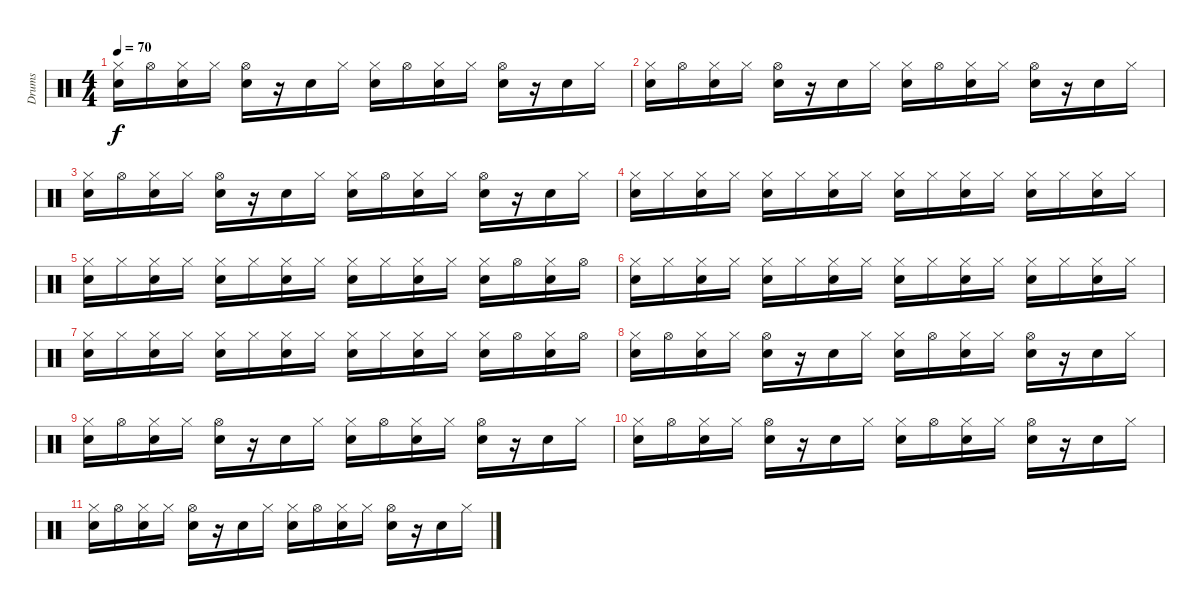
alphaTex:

\track ("Drums" "Drums") {instrument percussion}
\staff {score}
\articulation defaults
\ts (4 4)
\tempo 70
\clef neutral
\ks c
("Hi-Hat (closed)" "Electric Snare (hit)").16{dy f} "Hi-Hat (open)".16 ("Hi-Hat (closed)" "Electric Snare (hit)").16 "Hi-Hat (closed)".16 ("Hi-Hat (open)" "Electric Snare (hit)").16 r.16 "Electric Snare (hit)".16 "Hi-Hat (closed)".16 ("Hi-Hat (closed)" "Electric Snare (hit)").16 "Hi-Hat (open)".16 ("Hi-Hat (closed)" "Electric Snare (hit)").16 "Hi-Hat (closed)".16 ("Hi-Hat (open)" "Electric Snare (hit)").16 r.16 "Electric Snare (hit)".16 "Hi-Hat (closed)".16 |
("Hi-Hat (closed)" "Electric Snare (hit)").16 "Hi-Hat (open)".16 ("Hi-Hat (closed)" "Electric Snare (hit)").16 "Hi-Hat (closed)".16 ("Hi-Hat (open)" "Electric Snare (hit)").16 r.16 "Electric Snare (hit)".16 "Hi-Hat (closed)".16 ("Hi-Hat (closed)" "Electric Snare (hit)").16 "Hi-Hat (open)".16 ("Hi-Hat (closed)" "Electric Snare (hit)").16 "Hi-Hat (closed)".16 ("Hi-Hat (open)" "Electric Snare (hit)").16 r.16 "Electric Snare (hit)".16 "Hi-Hat (closed)".16 |
("Hi-Hat (closed)" "Electric Snare (hit)").16 "Hi-Hat (open)".16 ("Hi-Hat (closed)" "Electric Snare (hit)").16 "Hi-Hat (closed)".16 ("Hi-Hat (open)" "Electric Snare (hit)").16 r.16 "Electric Snare (hit)".16 "Hi-Hat (closed)".16 ("Hi-Hat (closed)" "Electric Snare (hit)").16 "Hi-Hat (open)".16 ("Hi-Hat (closed)" "Electric Snare (hit)").16 "Hi-Hat (closed)".16 ("Hi-Hat (open)" "Electric Snare (hit)").16 r.16 "Electric Snare (hit)".16 "Hi-Hat (closed)".16 |
("Hi-Hat (closed)" "Electric Snare (hit)").16 "Hi-Hat (closed)".16 ("Hi-Hat (closed)" "Electric Snare (hit)").16 "Hi-Hat (closed)".16 ("Hi-Hat (closed)" "Electric Snare (hit)").16 "Hi-Hat (closed)".16 ("Hi-Hat (closed)" "Electric Snare (hit)").16 "Hi-Hat (closed)".16 ("Hi-Hat (closed)" "Electric Snare (hit)").16 "Hi-Hat (closed)".16 ("Hi-Hat (closed)" "Electric Snare (hit)").16 "Hi-Hat (closed)".16 ("Hi-Hat (closed)" "Electric Snare (hit)").16 "Hi-Hat (closed)".16 ("Hi-Hat (closed)" "Electric Snare (hit)").16 "Hi-Hat (closed)".16 |
("Hi-Hat (closed)" "Electric Snare (hit)").16 "Hi-Hat (closed)".16 ("Hi-Hat (closed)" "Electric Snare (hit)").16 "Hi-Hat (closed)".16 ("Hi-Hat (closed)" "Electric Snare (hit)").16 "Hi-Hat (closed)".16 ("Hi-Hat (closed)" "Electric Snare (hit)").16 "Hi-Hat (closed)".16 ("Hi-Hat (closed)" "Electric Snare (hit)").16 "Hi-Hat (closed)".16 ("Hi-Hat (closed)" "Electric Snare (hit)").16 "Hi-Hat (closed)".16 ("Hi-Hat (closed)" "Electric Snare (hit)").16 "Hi-Hat (open)".16 ("Hi-Hat (closed)" "Electric Snare (hit)").16 "Hi-Hat (open)".16 |
("Hi-Hat (closed)" "Electric Snare (hit)").16 "Hi-Hat (closed)".16 ("Hi-Hat (closed)" "Electric Snare (hit)").16 "Hi-Hat (closed)".16 ("Hi-Hat (closed)" "Electric Snare (hit)").16 "Hi-Hat (closed)".16 ("Hi-Hat (closed)" "Electric Snare (hit)").16 "Hi-Hat (closed)".16 ("Hi-Hat (closed)" "Electric Snare (hit)").16 "Hi-Hat (closed)".16 ("Hi-Hat (closed)" "Electric Snare (hit)").16 "Hi-Hat (closed)".16 ("Hi-Hat (closed)" "Electric Snare (hit)").16 "Hi-Hat (closed)".16 ("Hi-Hat (closed)" "Electric Snare (hit)").16 "Hi-Hat (closed)".16 |
("Hi-Hat (closed)" "Electric Snare (hit)").16 "Hi-Hat (closed)".16 ("Hi-Hat (closed)" "Electric Snare (hit)").16 "Hi-Hat (closed)".16 ("Hi-Hat (closed)" "Electric Snare (hit)").16 "Hi-Hat (closed)".16 ("Hi-Hat (closed)" "Electric Snare (hit)").16 "Hi-Hat (closed)".16 ("Hi-Hat (closed)" "Electric Snare (hit)").16 "Hi-Hat (closed)".16 ("Hi-Hat (closed)" "Electric Snare (hit)").16 "Hi-Hat (closed)".16 ("Hi-Hat (closed)" "Electric Snare (hit)").16 "Hi-Hat (open)".16 ("Hi-Hat (closed)" "Electric Snare (hit)").16 "Hi-Hat (open)".16 |
("Hi-Hat (closed)" "Electric Snare (hit)").16 "Hi-Hat (open)".16 ("Hi-Hat (closed)" "Electric Snare (hit)").16 "Hi-Hat (closed)".16 ("Hi-Hat (open)" "Electric Snare (hit)").16 r.16 "Electric Snare (hit)".16 "Hi-Hat (closed)".16 ("Hi-Hat (closed)" "Electric Snare (hit)").16 "Hi-Hat (open)".16 ("Hi-Hat (closed)" "Electric Snare (hit)").16 "Hi-Hat (closed)".16 ("Hi-Hat (open)" "Electric Snare (hit)").16 r.16 "Electric Snare (hit)".16 "Hi-Hat (closed)".16 |
("Hi-Hat (closed)" "Electric Snare (hit)").16 "Hi-Hat (open)".16 ("Hi-Hat (closed)" "Electric Snare (hit)").16 "Hi-Hat (closed)".16 ("Hi-Hat (open)" "Electric Snare (hit)").16 r.16 "Electric Snare (hit)".16 "Hi-Hat (closed)".16 ("Hi-Hat (closed)" "Electric Snare (hit)").16 "Hi-Hat (open)".16 ("Hi-Hat (closed)" "Electric Snare (hit)").16 "Hi-Hat (closed)".16 ("Hi-Hat (open)" "Electric Snare (hit)").16 r.16 "Electric Snare (hit)".16 "Hi-Hat (closed)".16 |
("Hi-Hat (closed)" "Electric Snare (hit)").16 "Hi-Hat (open)".16 ("Hi-Hat (closed)" "Electric Snare (hit)").16 "Hi-Hat (closed)".16 ("Hi-Hat (open)" "Electric Snare (hit)").16 r.16 "Electric Snare (hit)".16 "Hi-Hat (closed)".16 ("Hi-Hat (closed)" "Electric Snare (hit)").16 "Hi-Hat (open)".16 ("Hi-Hat (closed)" "Electric Snare (hit)").16 "Hi-Hat (closed)".16 ("Hi-Hat (open)" "Electric Snare (hit)").16 r.16 "Electric Snare (hit)".16 "Hi-Hat (closed)".16 |
("Hi-Hat (closed)" "Electric Snare (hit)").16 "Hi-Hat (open)".16 ("Hi-Hat (closed)" "Electric Snare (hit)").16 "Hi-Hat (closed)".16 ("Hi-Hat (open)" "Electric Snare (hit)").16 r.16 "Electric Snare (hit)".16 "Hi-Hat (closed)".16 ("Hi-Hat (closed)" "Electric Snare (hit)").16 "Hi-Hat (open)".16 ("Hi-Hat (closed)" "Electric Snare (hit)").16 "Hi-Hat (closed)".16 ("Hi-Hat (open)" "Electric Snare (hit)").16 r.16 "Electric Snare (hit)".16 "Hi-Hat (closed)".16
